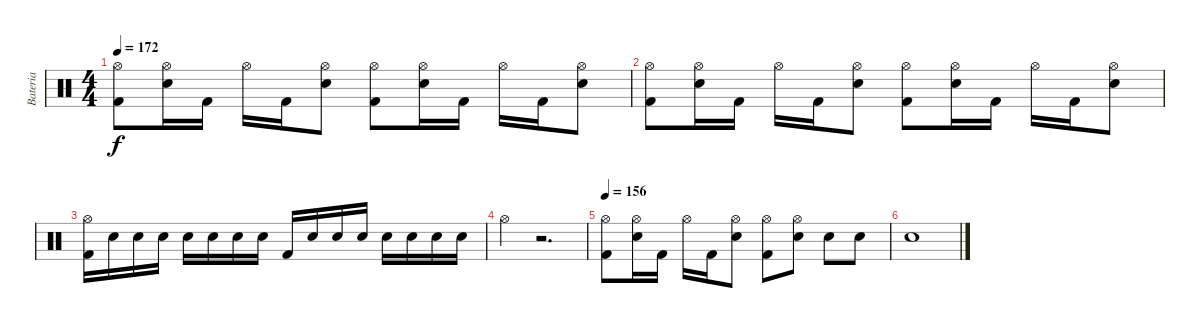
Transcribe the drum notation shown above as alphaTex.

\track ("Bateria" "Bateria") {instrument percussion}
\staff {score}
\articulation defaults
\ts (4 4)
\tempo 172
\clef neutral
\ks c
("Hi-Hat (open)" "Kick (hit) 2").8{dy f} ("Hi-Hat (open)" "Electric Snare (hit)").16 "Kick (hit) 2".16 "Hi-Hat (open)".16 "Kick (hit) 2".16 ("Hi-Hat (open)" "Electric Snare (hit)").8 ("Hi-Hat (open)" "Kick (hit) 2").8 ("Hi-Hat (open)" "Electric Snare (hit)").16 "Kick (hit) 2".16 "Hi-Hat (open)".16 "Kick (hit) 2".16 ("Hi-Hat (open)" "Electric Snare (hit)").8 |
("Hi-Hat (open)" "Kick (hit) 2").8 ("Hi-Hat (open)" "Electric Snare (hit)").16 "Kick (hit) 2".16 "Hi-Hat (open)".16 "Kick (hit) 2".16 ("Hi-Hat (open)" "Electric Snare (hit)").8 ("Hi-Hat (open)" "Kick (hit) 2").8 ("Hi-Hat (open)" "Electric Snare (hit)").16 "Kick (hit) 2".16 "Hi-Hat (open)".16 "Kick (hit) 2".16 ("Hi-Hat (open)" "Electric Snare (hit)").8 |
("Hi-Hat (open)" "Kick (hit) 2").16 "Electric Snare (hit)".16 "Electric Snare (hit)".16 "Electric Snare (hit)".16 "Electric Snare (hit)".16 "Electric Snare (hit)".16 "Electric Snare (hit)".16 "Electric Snare (hit)".16 "Kick (hit) 2".16 "Electric Snare (hit)".16 "Electric Snare (hit)".16 "Electric Snare (hit)".16 "Electric Snare (hit)".16 "Electric Snare (hit)".16 "Electric Snare (hit)".16 "Electric Snare (hit)".16 |
"Hi-Hat (open)".4 r.2{d} |
\tempo 156
("Hi-Hat (open)" "Kick (hit) 2").8 ("Hi-Hat (open)" "Electric Snare (hit)").16 "Kick (hit) 2".16 "Hi-Hat (open)".16 "Kick (hit) 2".16 ("Hi-Hat (open)" "Electric Snare (hit)").8 ("Hi-Hat (open)" "Kick (hit) 2").8 ("Hi-Hat (open)" "Electric Snare (hit)").8 "Electric Snare (hit)".8 "Electric Snare (hit)".8 |
"Electric Snare (hit)".1
